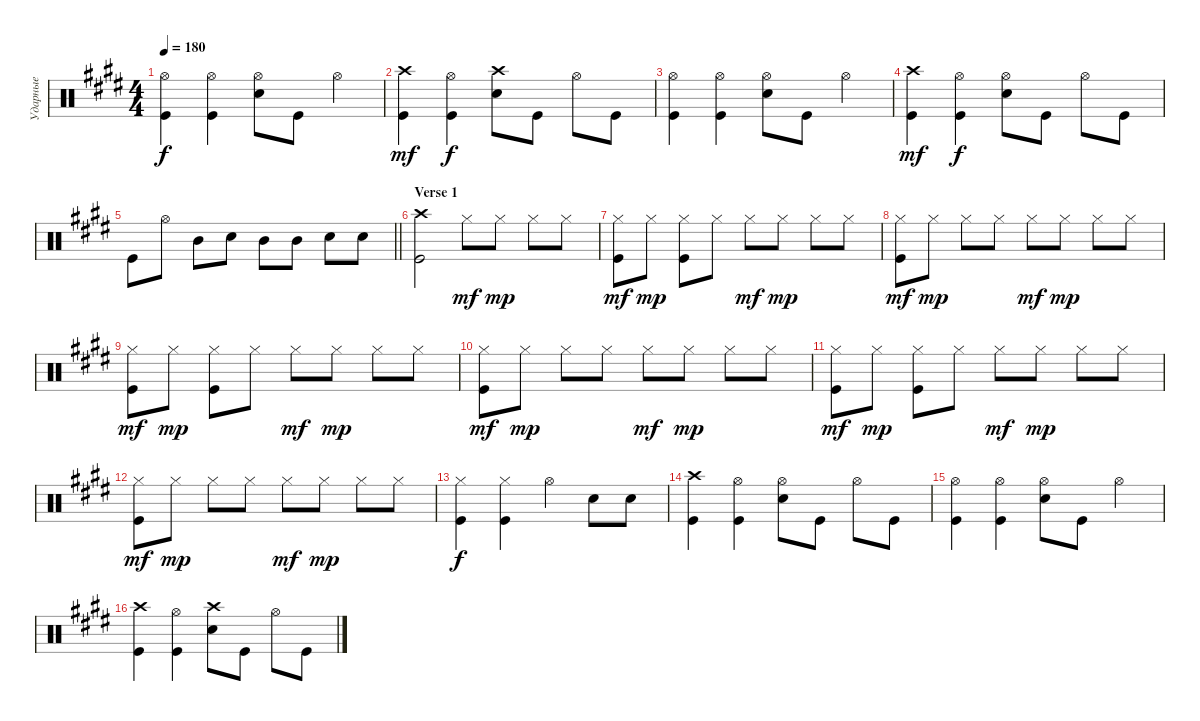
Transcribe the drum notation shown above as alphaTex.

\track ("Ударные" "Ударные") {instrument percussion}
\staff {score}
\articulation defaults
\ts (4 4)
\tempo 180
\clef neutral
\ks c#minor
("Kick (hit)" "Hi-Hat (open)").4{dy f} ("Hi-Hat (open)" "Kick (hit)").4 ("Snare (hit) 2" "Hi-Hat (open)").8 "Kick (hit)".8 "Hi-Hat (open)".4 |
("Kick (hit)" "Crash high (hit)").4{dy mf} ("Kick (hit)" "Hi-Hat (open)").4{dy f} ("Snare (hit) 2" "Crash high (hit)").8 "Kick (hit)".8 "Hi-Hat (open)".8 "Kick (hit)".8 |
("Kick (hit)" "Hi-Hat (open)").4 ("Hi-Hat (open)" "Kick (hit)").4 ("Snare (hit) 2" "Hi-Hat (open)").8 "Kick (hit)".8 "Hi-Hat (open)".4 |
("Kick (hit)" "Crash high (hit)").4{dy mf} ("Kick (hit)" "Hi-Hat (open)").4{dy f} ("Snare (hit) 2" "Hi-Hat (open)").8 "Kick (hit)".8 "Hi-Hat (open)".8 "Kick (hit)".8 |
\barLineRight lightlight "Kick (hit)".8 "Hi-Hat (open)".8 "Mid Tom (hit)".8 "Snare (hit) 2".8 "Mid Tom (hit)".8 "Mid Tom (hit)".8 "Snare (hit) 2".8 "Snare (hit) 2".8
|
\section ("" "Verse 1")
("Crash high (hit)" "Kick (hit)").2 "Hi-Hat (closed)".8{dy mf} "Hi-Hat (closed)".8{dy mp} "Hi-Hat (closed)".8 "Hi-Hat (closed)".8 |
("Hi-Hat (closed)" "Kick (hit)").8{dy mf} "Hi-Hat (closed)".8{dy mp} ("Hi-Hat (closed)" "Kick (hit)").8 "Hi-Hat (closed)".8 "Hi-Hat (closed)".8{dy mf} "Hi-Hat (closed)".8{dy mp} "Hi-Hat (closed)".8 "Hi-Hat (closed)".8 |
("Hi-Hat (closed)" "Kick (hit)").8{dy mf} "Hi-Hat (closed)".8{dy mp} "Hi-Hat (closed)".8 "Hi-Hat (closed)".8 "Hi-Hat (closed)".8{dy mf} "Hi-Hat (closed)".8{dy mp} "Hi-Hat (closed)".8 "Hi-Hat (closed)".8 |
("Hi-Hat (closed)" "Kick (hit)").8{dy mf} "Hi-Hat (closed)".8{dy mp} ("Hi-Hat (closed)" "Kick (hit)").8 "Hi-Hat (closed)".8 "Hi-Hat (closed)".8{dy mf} "Hi-Hat (closed)".8{dy mp} "Hi-Hat (closed)".8 "Hi-Hat (closed)".8 |
("Hi-Hat (closed)" "Kick (hit)").8{dy mf} "Hi-Hat (closed)".8{dy mp} "Hi-Hat (closed)".8 "Hi-Hat (closed)".8 "Hi-Hat (closed)".8{dy mf} "Hi-Hat (closed)".8{dy mp} "Hi-Hat (closed)".8 "Hi-Hat (closed)".8 |
("Hi-Hat (closed)" "Kick (hit)").8{dy mf} "Hi-Hat (closed)".8{dy mp} ("Hi-Hat (closed)" "Kick (hit)").8 "Hi-Hat (closed)".8 "Hi-Hat (closed)".8{dy mf} "Hi-Hat (closed)".8{dy mp} "Hi-Hat (closed)".8 "Hi-Hat (closed)".8 |
("Hi-Hat (closed)" "Kick (hit)").8{dy mf} "Hi-Hat (closed)".8{dy mp} "Hi-Hat (closed)".8 "Hi-Hat (closed)".8 "Hi-Hat (closed)".8{dy mf} "Hi-Hat (closed)".8{dy mp} "Hi-Hat (closed)".8 "Hi-Hat (closed)".8 |
("Kick (hit)" "Hi-Hat (closed)").4{dy f} ("Kick (hit)" "Hi-Hat (closed)").4 "Hi-Hat (open)".4 "Snare (hit) 2".8 "Snare (hit) 2".8 |
("Kick (hit)" "Crash high (hit)").4 ("Kick (hit)" "Hi-Hat (open)").4 ("Snare (hit) 2" "Hi-Hat (open)").8 "Kick (hit)".8 "Hi-Hat (open)".8 "Kick (hit)".8 |
("Kick (hit)" "Hi-Hat (open)").4 ("Hi-Hat (open)" "Kick (hit)").4 ("Snare (hit) 2" "Hi-Hat (open)").8 "Kick (hit)".8 "Hi-Hat (open)".4 |
("Kick (hit)" "Crash high (hit)").4 ("Kick (hit)" "Hi-Hat (open)").4 ("Snare (hit) 2" "Crash high (hit)").8 "Kick (hit)".8 "Hi-Hat (open)".8 "Kick (hit)".8
